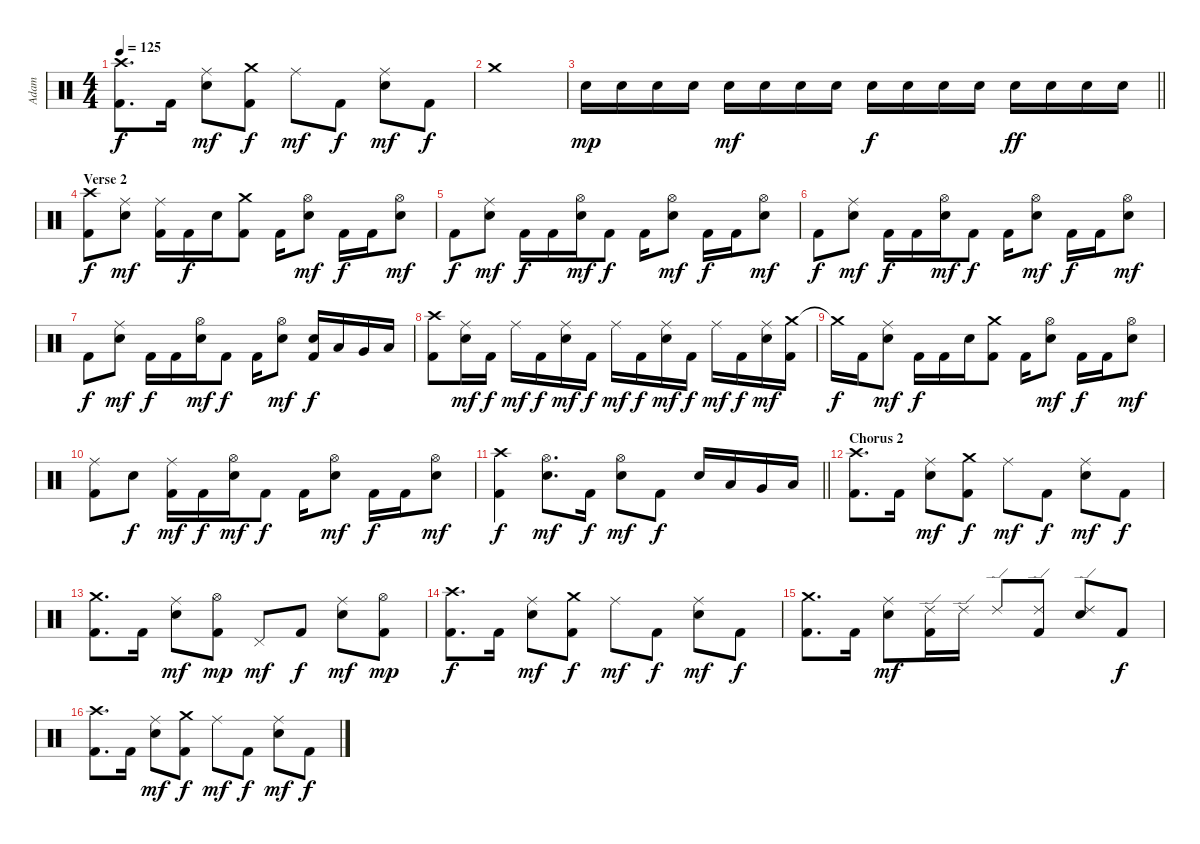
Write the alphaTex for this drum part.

\track ("Adam" "Adam") {instrument percussion}
\staff {score}
\articulation defaults
\ts (4 4)
\tempo 125
\clef neutral
\ks c
("Crash high (hit)" "Kick (hit) 2").8{d dy f} "Kick (hit) 2".16 ("Ride (middle)" "Electric Snare (hit)").8{dy mf} ("Crash medium (hit)" "Kick (hit) 2").8{dy f} "Ride (middle)".8{dy mf} "Kick (hit) 2".8{dy f} ("Ride (middle)" "Electric Snare (hit)").8{dy mf} "Kick (hit) 2".8{dy f} |
"Crash medium (hit)".1 |
\barLineRight lightlight "Electric Snare (hit)".16{dy mp} "Electric Snare (hit)".16 "Electric Snare (hit)".16 "Electric Snare (hit)".16 "Electric Snare (hit)".16{dy mf} "Electric Snare (hit)".16 "Electric Snare (hit)".16 "Electric Snare (hit)".16 "Electric Snare (hit)".16{dy f} "Electric Snare (hit)".16 "Electric Snare (hit)".16 "Electric Snare (hit)".16 "Electric Snare (hit)".16{dy ff} "Electric Snare (hit)".16 "Electric Snare (hit)".16 "Electric Snare (hit)".16
|
\section ("" "Verse 2")
("Crash high (hit)" "Kick (hit) 2").8{dy f} ("Ride (middle)" "Electric Snare (hit)").8{dy mf} ("Ride (middle)" "Kick (hit) 2").16 "Kick (hit) 2".16{dy f} "Electric Snare (hit)".16 ("Crash medium (hit)" "Kick (hit) 2").8 "Kick (hit) 2".16 ("Hi-Hat (open)" "Electric Snare (hit)").8{dy mf} "Kick (hit) 2".16{dy f} "Kick (hit) 2".16 ("Hi-Hat (open)" "Electric Snare (hit)").8{dy mf} |
"Kick (hit) 2".8{dy f} ("Ride (middle)" "Electric Snare (hit)").8{dy mf} "Kick (hit) 2".16{dy f} "Kick (hit) 2".16 ("Hi-Hat (open)" "Electric Snare (hit)").16{dy mf} "Kick (hit) 2".8{dy f} "Kick (hit) 2".16 ("Hi-Hat (open)" "Electric Snare (hit)").8{dy mf} "Kick (hit) 2".16{dy f} "Kick (hit) 2".16 ("Hi-Hat (open)" "Electric Snare (hit)").8{dy mf} |
"Kick (hit) 2".8{dy f} ("Ride (middle)" "Electric Snare (hit)").8{dy mf} "Kick (hit) 2".16{dy f} "Kick (hit) 2".16 ("Hi-Hat (open)" "Electric Snare (hit)").16{dy mf} "Kick (hit) 2".8{dy f} "Kick (hit) 2".16 ("Hi-Hat (open)" "Electric Snare (hit)").8{dy mf} "Kick (hit) 2".16{dy f} "Kick (hit) 2".16 ("Hi-Hat (open)" "Electric Snare (hit)").8{dy mf} |
"Kick (hit) 2".8{dy f} ("Ride (middle)" "Electric Snare (hit)").8{dy mf} "Kick (hit) 2".16{dy f} "Kick (hit) 2".16 ("Hi-Hat (open)" "Electric Snare (hit)").16{dy mf} "Kick (hit) 2".8{dy f} "Kick (hit) 2".16 ("Hi-Hat (open)" "Electric Snare (hit)").8{dy mf} ("Electric Snare (hit)" "Kick (hit) 2").16{dy f} "Low Tom (hit)".16 "Very Low Tom (hit)".16 "Low Floor Tom (hit)".16 |
("Crash high (hit)" "Kick (hit) 2").8 ("Ride (middle)" "Electric Snare (hit)").16{dy mf} "Kick (hit) 2".16{dy f} "Ride (middle)".16{dy mf} "Kick (hit) 2".16{dy f} ("Ride (middle)" "Electric Snare (hit)").16{dy mf} "Kick (hit) 2".16{dy f} "Ride (middle)".16{dy mf} "Kick (hit) 2".16{dy f} ("Ride (middle)" "Electric Snare (hit)").16{dy mf} "Kick (hit) 2".16{dy f} "Ride (middle)".16{dy mf} "Kick (hit) 2".16{dy f} ("Ride (middle)" "Electric Snare (hit)").16{dy mf} ("Crash medium (hit)" "Kick (hit) 2").16 |
"Crash medium (hit)"{t}.16{dy f} "Kick (hit) 2".16 ("Ride (middle)" "Electric Snare (hit)").8{dy mf} "Kick (hit) 2".16{dy f} "Kick (hit) 2".16 "Electric Snare (hit)".16 ("Crash medium (hit)" "Kick (hit) 2").8 "Kick (hit) 2".16 ("Hi-Hat (open)" "Electric Snare (hit)").8{dy mf} "Kick (hit) 2".16{dy f} "Kick (hit) 2".16 ("Hi-Hat (open)" "Electric Snare (hit)").8{dy mf} |
("Ride (middle)" "Kick (hit) 2").8 "Electric Snare (hit)".8{dy f} ("Ride (middle)" "Kick (hit) 2").16{dy mf} "Kick (hit) 2".16{dy f} ("Hi-Hat (open)" "Electric Snare (hit)").16{dy mf} "Kick (hit) 2".8{dy f} "Kick (hit) 2".16 ("Hi-Hat (open)" "Electric Snare (hit)").8{dy mf} "Kick (hit) 2".16{dy f} "Kick (hit) 2".16 ("Hi-Hat (open)" "Electric Snare (hit)").8{dy mf} |
\barLineRight lightlight
("Crash high (hit)" "Kick (hit) 2").4{dy f} ("Hi-Hat (open)" "Electric Snare (hit)").8{d dy mf} "Kick (hit) 2".16{dy f} ("Hi-Hat (open)" "Electric Snare (hit)").8{dy mf} "Kick (hit) 2".8{dy f} "Electric Snare (hit)".16 "Low Tom (hit)".16 "Very Low Tom (hit)".16 "Low Floor Tom (hit)".16 |
\section ("" "Chorus 2")
("Crash high (hit)" "Kick (hit) 2").8{d} "Kick (hit) 2".16 ("Ride (middle)" "Electric Snare (hit)").8{dy mf} ("Crash medium (hit)" "Kick (hit) 2").8{dy f} "Ride (middle)".8{dy mf} "Kick (hit) 2".8{dy f} ("Ride (middle)" "Electric Snare (hit)").8{dy mf} "Kick (hit) 2".8{dy f} |
("Crash medium (hit)" "Kick (hit) 2").8{d} "Kick (hit) 2".16 ("Ride (middle)" "Electric Snare (hit)").8{dy mf} ("Hi-Hat (open)" "Kick (hit) 2").8{dy mp} "Pedal Hi-Hat (hit)".8{dy mf} "Kick (hit) 2".8{dy f} ("Ride (middle)" "Electric Snare (hit)").8{dy mf} ("Hi-Hat (open)" "Kick (hit) 2").8{dy mp} |
("Crash high (hit)" "Kick (hit) 2").8{d dy f} "Kick (hit) 2".16 ("Ride (middle)" "Electric Snare (hit)").8{dy mf} ("Crash medium (hit)" "Kick (hit) 2").8{dy f} "Ride (middle)".8{dy mf} "Kick (hit) 2".8{dy f} ("Ride (middle)" "Electric Snare (hit)").8{dy mf} "Kick (hit) 2".8{dy f} |
("Crash medium (hit)" "Kick (hit) 2").8{d} "Kick (hit) 2".16 ("Ride (middle)" "Electric Snare (hit)").8{dy mf} ("Ride (edge) 2" "Kick (hit) 2").16 "Ride (edge) 2".16 "Ride (edge) 2".8 ("Ride (edge) 2" "Kick (hit) 2").8 ("Ride (edge) 2" "Electric Snare (hit)").8 "Kick (hit) 2".8{dy f} |
("Crash high (hit)" "Kick (hit) 2").8{d} "Kick (hit) 2".16 ("Ride (middle)" "Electric Snare (hit)").8{dy mf} ("Crash medium (hit)" "Kick (hit) 2").8{dy f} "Ride (middle)".8{dy mf} "Kick (hit) 2".8{dy f} ("Ride (middle)" "Electric Snare (hit)").8{dy mf} "Kick (hit) 2".8{dy f}
